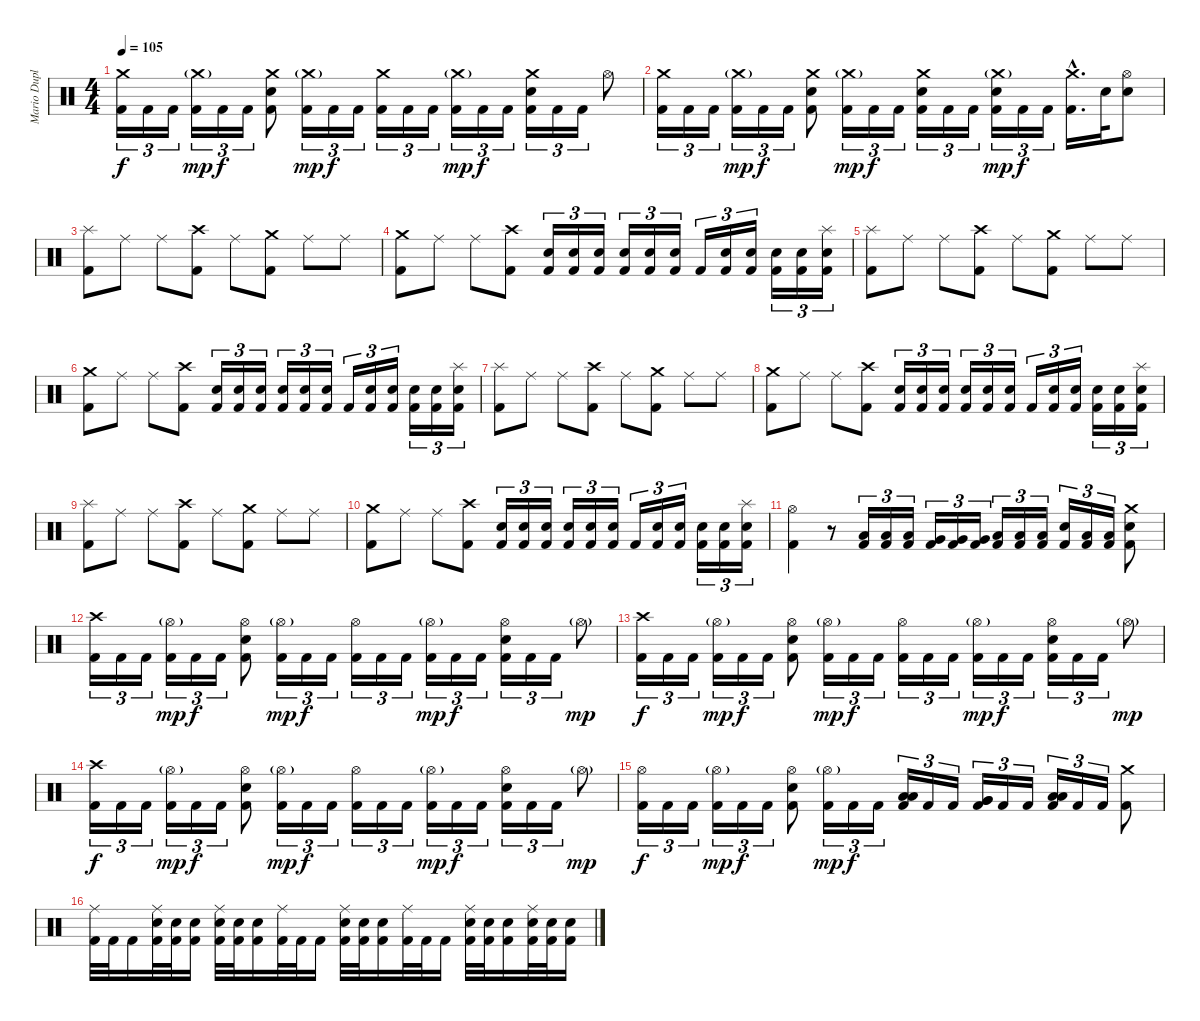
\track ("Mario Duplantier" "Mario Dupl") {instrument percussion}
\staff {score}
\articulation defaults
\ts (4 4)
\tempo 105
\clef neutral
\ks c
("Crash medium (hit)" "Kick (hit) 2").16{tu (3 2) dy f} "Kick (hit) 2".16{tu (3 2)} "Kick (hit) 2".16{tu (3 2)} ("Crash medium (hit)"{g} "Kick (hit) 2").16{tu (3 2) dy mp} "Kick (hit) 2".16{tu (3 2) dy f} "Kick (hit) 2".16{tu (3 2)} ("Crash medium (hit)" "Electric Snare (hit)" "Kick (hit) 2").8 ("Crash medium (hit)"{g} "Kick (hit) 2").16{tu (3 2) dy mp} "Kick (hit) 2".16{tu (3 2) dy f} "Kick (hit) 2".16{tu (3 2)} ("Crash medium (hit)" "Kick (hit) 2").16{tu (3 2)} "Kick (hit) 2".16{tu (3 2)} "Kick (hit) 2".16{tu (3 2)} ("Crash medium (hit)"{g} "Kick (hit) 2").16{tu (3 2) dy mp} "Kick (hit) 2".16{tu (3 2) dy f} "Kick (hit) 2".16{tu (3 2)} ("Crash medium (hit)" "Electric Snare (hit)" "Kick (hit) 2").16{tu (3 2)} "Kick (hit) 2".16{tu (3 2)} "Kick (hit) 2".16{tu (3 2)} "Hi-Hat (open)".8 |
("Crash medium (hit)" "Kick (hit) 2").16{tu (3 2)} "Kick (hit) 2".16{tu (3 2)} "Kick (hit) 2".16{tu (3 2)} ("Crash medium (hit)"{g} "Kick (hit) 2").16{tu (3 2) dy mp} "Kick (hit) 2".16{tu (3 2) dy f} "Kick (hit) 2".16{tu (3 2)} ("Crash medium (hit)" "Electric Snare (hit)" "Kick (hit) 2").8 ("Crash medium (hit)"{g} "Kick (hit) 2").16{tu (3 2) dy mp} "Kick (hit) 2".16{tu (3 2) dy f} "Kick (hit) 2".16{tu (3 2)} ("Crash medium (hit)" "Electric Snare (hit)" "Kick (hit) 2").16{tu (3 2)} "Kick (hit) 2".16{tu (3 2)} "Kick (hit) 2".16{tu (3 2)} ("Crash medium (hit)"{g} "Electric Snare (hit)" "Kick (hit) 2").16{tu (3 2) dy mp} "Kick (hit) 2".16{tu (3 2) dy f} "Kick (hit) 2".16{tu (3 2)} ("Crash medium (hit)"{hac} "Kick (hit) 2"{hac}).16{d} "Electric Snare (hit)".32 ("Hi-Hat (open)" "Electric Snare (hit)").8 |
("Splash (hit)" "Kick (hit) 2").8 "Ride (middle)".8 "Ride (middle)".8 ("Crash high (hit)" "Kick (hit) 2").8 "Ride (middle)".8 ("Crash medium (hit)" "Kick (hit) 2").8 "Ride (middle)".8 "Ride (middle)".8 |
("Crash medium (hit)" "Kick (hit) 2").8 "Ride (middle)".8 "Ride (middle)".8 ("Crash high (hit)" "Kick (hit) 2").8 ("Electric Snare (hit)" "Kick (hit) 2").16{tu (3 2)} ("Electric Snare (hit)" "Kick (hit) 2").16{tu (3 2)} ("Electric Snare (hit)" "Kick (hit) 2").16{tu (3 2)} ("Electric Snare (hit)" "Kick (hit) 2").16{tu (3 2)} ("Electric Snare (hit)" "Kick (hit) 2").16{tu (3 2)} ("Electric Snare (hit)" "Kick (hit) 2").16{tu (3 2)} "Kick (hit) 2".16{tu (3 2)} ("Electric Snare (hit)" "Kick (hit) 2").16{tu (3 2)} ("Electric Snare (hit)" "Kick (hit) 2").16{tu (3 2)} ("Electric Snare (hit)" "Kick (hit) 2").16{tu (3 2)} ("Electric Snare (hit)" "Kick (hit) 2").16{tu (3 2)} ("Splash (hit)" "Electric Snare (hit)" "Kick (hit) 2").16{tu (3 2)} |
("Splash (hit)" "Kick (hit) 2").8 "Ride (middle)".8 "Ride (middle)".8 ("Crash high (hit)" "Kick (hit) 2").8 "Ride (middle)".8 ("Crash medium (hit)" "Kick (hit) 2").8 "Ride (middle)".8 "Ride (middle)".8 |
("Crash medium (hit)" "Kick (hit) 2").8 "Ride (middle)".8 "Ride (middle)".8 ("Crash high (hit)" "Kick (hit) 2").8 ("Electric Snare (hit)" "Kick (hit) 2").16{tu (3 2)} ("Electric Snare (hit)" "Kick (hit) 2").16{tu (3 2)} ("Electric Snare (hit)" "Kick (hit) 2").16{tu (3 2)} ("Electric Snare (hit)" "Kick (hit) 2").16{tu (3 2)} ("Electric Snare (hit)" "Kick (hit) 2").16{tu (3 2)} ("Electric Snare (hit)" "Kick (hit) 2").16{tu (3 2)} "Kick (hit) 2".16{tu (3 2)} ("Electric Snare (hit)" "Kick (hit) 2").16{tu (3 2)} ("Electric Snare (hit)" "Kick (hit) 2").16{tu (3 2)} ("Electric Snare (hit)" "Kick (hit) 2").16{tu (3 2)} ("Electric Snare (hit)" "Kick (hit) 2").16{tu (3 2)} ("Splash (hit)" "Electric Snare (hit)" "Kick (hit) 2").16{tu (3 2)} |
("Splash (hit)" "Kick (hit) 2").8 "Ride (middle)".8 "Ride (middle)".8 ("Crash high (hit)" "Kick (hit) 2").8 "Ride (middle)".8 ("Crash medium (hit)" "Kick (hit) 2").8 "Ride (middle)".8 "Ride (middle)".8 |
("Crash medium (hit)" "Kick (hit) 2").8 "Ride (middle)".8 "Ride (middle)".8 ("Crash high (hit)" "Kick (hit) 2").8 ("Electric Snare (hit)" "Kick (hit) 2").16{tu (3 2)} ("Electric Snare (hit)" "Kick (hit) 2").16{tu (3 2)} ("Electric Snare (hit)" "Kick (hit) 2").16{tu (3 2)} ("Electric Snare (hit)" "Kick (hit) 2").16{tu (3 2)} ("Electric Snare (hit)" "Kick (hit) 2").16{tu (3 2)} ("Electric Snare (hit)" "Kick (hit) 2").16{tu (3 2)} "Kick (hit) 2".16{tu (3 2)} ("Electric Snare (hit)" "Kick (hit) 2").16{tu (3 2)} ("Electric Snare (hit)" "Kick (hit) 2").16{tu (3 2)} ("Electric Snare (hit)" "Kick (hit) 2").16{tu (3 2)} ("Electric Snare (hit)" "Kick (hit) 2").16{tu (3 2)} ("Splash (hit)" "Electric Snare (hit)" "Kick (hit) 2").16{tu (3 2)} |
("Splash (hit)" "Kick (hit) 2").8 "Ride (middle)".8 "Ride (middle)".8 ("Crash high (hit)" "Kick (hit) 2").8 "Ride (middle)".8 ("Crash medium (hit)" "Kick (hit) 2").8 "Ride (middle)".8 "Ride (middle)".8 |
("Crash medium (hit)" "Kick (hit) 2").8 "Ride (middle)".8 "Ride (middle)".8 ("Crash high (hit)" "Kick (hit) 2").8 ("Electric Snare (hit)" "Kick (hit) 2").16{tu (3 2)} ("Electric Snare (hit)" "Kick (hit) 2").16{tu (3 2)} ("Electric Snare (hit)" "Kick (hit) 2").16{tu (3 2)} ("Electric Snare (hit)" "Kick (hit) 2").16{tu (3 2)} ("Electric Snare (hit)" "Kick (hit) 2").16{tu (3 2)} ("Electric Snare (hit)" "Kick (hit) 2").16{tu (3 2)} "Kick (hit) 2".16{tu (3 2)} ("Electric Snare (hit)" "Kick (hit) 2").16{tu (3 2)} ("Electric Snare (hit)" "Kick (hit) 2").16{tu (3 2)} ("Electric Snare (hit)" "Kick (hit) 2").16{tu (3 2)} ("Electric Snare (hit)" "Kick (hit) 2").16{tu (3 2)} ("Splash (hit)" "Electric Snare (hit)" "Kick (hit) 2").16{tu (3 2)} |
("Hi-Hat (open)" "Kick (hit) 2").4 r.8 ("Low Tom (hit)" "Kick (hit) 2").16{tu (3 2)} ("Low Tom (hit)" "Kick (hit) 2").16{tu (3 2)} ("Low Tom (hit)" "Kick (hit) 2").16{tu (3 2)} ("Very Low Tom (hit)" "Kick (hit) 2").16{tu (3 2)} ("Very Low Tom (hit)" "Kick (hit) 2").16{tu (3 2)} ("Very Low Tom (hit)" "Kick (hit) 2").16{tu (3 2)} ("Low Floor Tom (hit)" "Kick (hit) 2").16{tu (3 2)} ("Low Floor Tom (hit)" "Kick (hit) 2").16{tu (3 2)} ("Low Floor Tom (hit)" "Kick (hit) 2").16{tu (3 2)} ("Electric Snare (hit)" "Kick (hit) 2").16{tu (3 2)} ("Low Floor Tom (hit)" "Kick (hit) 2").16{tu (3 2)} ("Low Floor Tom (hit)" "Kick (hit) 2").16{tu (3 2)} ("Crash medium (hit)" "Electric Snare (hit)" "Kick (hit) 2").8 |
("Crash high (hit)" "Kick (hit) 2").16{tu (3 2)} "Kick (hit) 2".16{tu (3 2)} "Kick (hit) 2".16{tu (3 2)} ("Hi-Hat (open)"{g} "Kick (hit) 2").16{tu (3 2) dy mp} "Kick (hit) 2".16{tu (3 2) dy f} "Kick (hit) 2".16{tu (3 2)} ("Hi-Hat (open)" "Electric Snare (hit)" "Kick (hit) 2").8 ("Hi-Hat (open)"{g} "Kick (hit) 2").16{tu (3 2) dy mp} "Kick (hit) 2".16{tu (3 2) dy f} "Kick (hit) 2".16{tu (3 2)} ("Hi-Hat (open)" "Kick (hit) 2").16{tu (3 2)} "Kick (hit) 2".16{tu (3 2)} "Kick (hit) 2".16{tu (3 2)} ("Hi-Hat (open)"{g} "Kick (hit) 2").16{tu (3 2) dy mp} "Kick (hit) 2".16{tu (3 2) dy f} "Kick (hit) 2".16{tu (3 2)} ("Hi-Hat (open)" "Electric Snare (hit)" "Kick (hit) 2").16{tu (3 2)} "Kick (hit) 2".16{tu (3 2)} "Kick (hit) 2".16{tu (3 2)} "Hi-Hat (open)"{g}.8{dy mp} |
("Crash high (hit)" "Kick (hit) 2").16{tu (3 2) dy f} "Kick (hit) 2".16{tu (3 2)} "Kick (hit) 2".16{tu (3 2)} ("Hi-Hat (open)"{g} "Kick (hit) 2").16{tu (3 2) dy mp} "Kick (hit) 2".16{tu (3 2) dy f} "Kick (hit) 2".16{tu (3 2)} ("Hi-Hat (open)" "Electric Snare (hit)" "Kick (hit) 2").8 ("Hi-Hat (open)"{g} "Kick (hit) 2").16{tu (3 2) dy mp} "Kick (hit) 2".16{tu (3 2) dy f} "Kick (hit) 2".16{tu (3 2)} ("Hi-Hat (open)" "Kick (hit) 2").16{tu (3 2)} "Kick (hit) 2".16{tu (3 2)} "Kick (hit) 2".16{tu (3 2)} ("Hi-Hat (open)"{g} "Kick (hit) 2").16{tu (3 2) dy mp} "Kick (hit) 2".16{tu (3 2) dy f} "Kick (hit) 2".16{tu (3 2)} ("Hi-Hat (open)" "Electric Snare (hit)" "Kick (hit) 2").16{tu (3 2)} "Kick (hit) 2".16{tu (3 2)} "Kick (hit) 2".16{tu (3 2)} "Hi-Hat (open)"{g}.8{dy mp} |
("Crash high (hit)" "Kick (hit) 2").16{tu (3 2) dy f} "Kick (hit) 2".16{tu (3 2)} "Kick (hit) 2".16{tu (3 2)} ("Hi-Hat (open)"{g} "Kick (hit) 2").16{tu (3 2) dy mp} "Kick (hit) 2".16{tu (3 2) dy f} "Kick (hit) 2".16{tu (3 2)} ("Hi-Hat (open)" "Electric Snare (hit)" "Kick (hit) 2").8 ("Hi-Hat (open)"{g} "Kick (hit) 2").16{tu (3 2) dy mp} "Kick (hit) 2".16{tu (3 2) dy f} "Kick (hit) 2".16{tu (3 2)} ("Hi-Hat (open)" "Kick (hit) 2").16{tu (3 2)} "Kick (hit) 2".16{tu (3 2)} "Kick (hit) 2".16{tu (3 2)} ("Hi-Hat (open)"{g} "Kick (hit) 2").16{tu (3 2) dy mp} "Kick (hit) 2".16{tu (3 2) dy f} "Kick (hit) 2".16{tu (3 2)} ("Hi-Hat (open)" "Electric Snare (hit)" "Kick (hit) 2").16{tu (3 2)} "Kick (hit) 2".16{tu (3 2)} "Kick (hit) 2".16{tu (3 2)} "Hi-Hat (open)"{g}.8{dy mp} |
("Hi-Hat (open)" "Kick (hit) 2").16{tu (3 2) dy f} "Kick (hit) 2".16{tu (3 2)} "Kick (hit) 2".16{tu (3 2)} ("Hi-Hat (open)"{g} "Kick (hit) 2").16{tu (3 2) dy mp} "Kick (hit) 2".16{tu (3 2) dy f} "Kick (hit) 2".16{tu (3 2)} ("Hi-Hat (open)" "Electric Snare (hit)" "Kick (hit) 2").8 ("Hi-Hat (open)"{g} "Kick (hit) 2").16{tu (3 2) dy mp} "Kick (hit) 2".16{tu (3 2) dy f} "Kick (hit) 2".16{tu (3 2)} ("Low Tom (hit)" "Low Tom (hit)" "Kick (hit) 2").16{tu (3 2)} "Kick (hit) 2".16{tu (3 2)} "Kick (hit) 2".16{tu (3 2)} ("Very Low Tom (hit)" "Very Low Tom (hit)" "Kick (hit) 2").16{tu (3 2)} "Kick (hit) 2".16{tu (3 2)} "Kick (hit) 2".16{tu (3 2)} ("Low Floor Tom (hit)" "Low Floor Tom (hit)" "Kick (hit) 2").16{tu (3 2)} "Kick (hit) 2".16{tu (3 2)} "Kick (hit) 2".16{tu (3 2)} ("Crash medium (hit)" "Kick (hit) 2").8 |
("Ride (middle)" "Kick (hit) 2").32 "Kick (hit) 2".32 "Kick (hit) 2".16 ("Ride (middle)" "Electric Snare (hit)" "Kick (hit) 2").32 ("Electric Snare (hit)" "Kick (hit) 2").32 ("Electric Snare (hit)" "Kick (hit) 2").16 ("Ride (middle)" "Electric Snare (hit)" "Kick (hit) 2").32 ("Electric Snare (hit)" "Kick (hit) 2").32 ("Electric Snare (hit)" "Kick (hit) 2").16 ("Ride (middle)" "Kick (hit) 2").32 "Kick (hit) 2".32 "Kick (hit) 2".16 ("Ride (middle)" "Electric Snare (hit)" "Kick (hit) 2").32 ("Electric Snare (hit)" "Kick (hit) 2").32 ("Electric Snare (hit)" "Kick (hit) 2").16 ("Ride (middle)" "Kick (hit) 2").32 "Kick (hit) 2".32 "Kick (hit) 2".16 ("Ride (middle)" "Electric Snare (hit)" "Kick (hit) 2").32 ("Electric Snare (hit)" "Kick (hit) 2").32 ("Electric Snare (hit)" "Kick (hit) 2").16 ("Ride (middle)" "Electric Snare (hit)" "Kick (hit) 2").32 ("Electric Snare (hit)" "Kick (hit) 2").32 ("Electric Snare (hit)" "Kick (hit) 2").16
